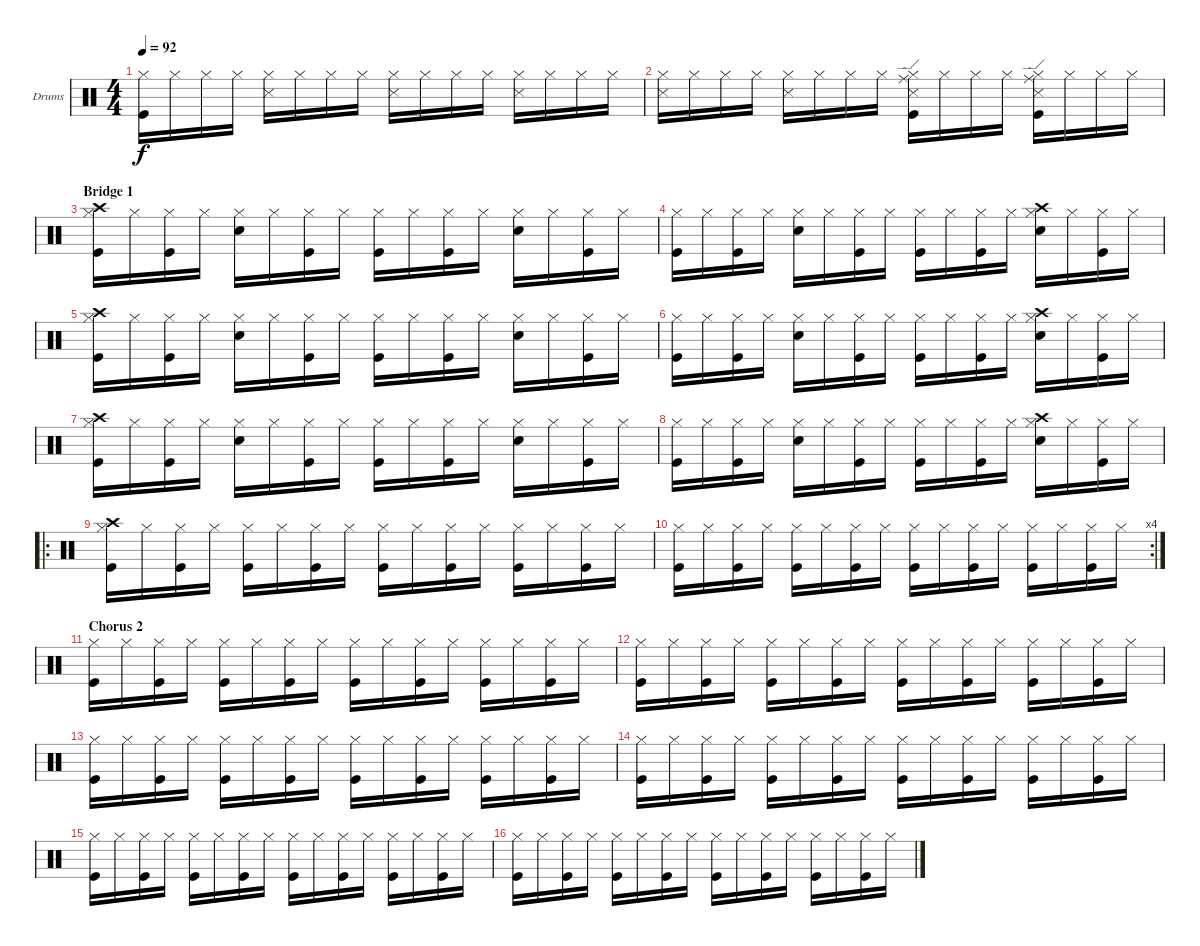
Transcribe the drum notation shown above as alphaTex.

\bracketExtendMode groupsimilarinstruments
\firstSystemTrackNameOrientation horizontal
\otherSystemsTrackNameOrientation horizontal
\track ("Drumkit" "Drums") {instrument percussion}
\staff {score}
\articulation defaults
\ts (4 4)
\tempo 92
\clef neutral
\ks c
("Hi-Hat (closed)" "Kick (hit)").16{dy f} "Hi-Hat (closed)".16 "Hi-Hat (closed)".16 "Hi-Hat (closed)".16 ("Hi-Hat (closed)" "Snare (side stick) 3").16 "Hi-Hat (closed)".16 "Hi-Hat (closed)".16 "Hi-Hat (closed)".16 ("Hi-Hat (closed)" "Snare (side stick) 3").16 "Hi-Hat (closed)".16 "Hi-Hat (closed)".16 "Hi-Hat (closed)".16 ("Hi-Hat (closed)" "Snare (side stick) 3").16 "Hi-Hat (closed)".16 "Hi-Hat (closed)".16 "Hi-Hat (closed)".16 |
("Hi-Hat (closed)" "Snare (side stick) 3").16 "Hi-Hat (closed)".16 "Hi-Hat (closed)".16 "Hi-Hat (closed)".16 ("Hi-Hat (closed)" "Snare (side stick) 3").16 "Hi-Hat (closed)".16 "Hi-Hat (closed)".16 "Hi-Hat (closed)".16 ("Hi-Hat (closed)" "Ride (edge)" "Snare (side stick) 3" "Kick (hit)").16 "Hi-Hat (closed)".16 "Hi-Hat (closed)".16 "Hi-Hat (closed)".16 ("Hi-Hat (closed)" "Ride (edge)" "Snare (side stick) 3" "Kick (hit)").16 "Hi-Hat (closed)".16 "Hi-Hat (closed)".16 "Hi-Hat (closed)".16 |
\section ("" "Bridge 1")
("Hi-Hat (closed)" "Crash high (hit)" "Kick (hit)").16 "Hi-Hat (closed)".16 ("Hi-Hat (closed)" "Kick (hit)").16 "Hi-Hat (closed)".16 ("Hi-Hat (closed)" "Snare (hit) 2").16 "Hi-Hat (closed)".16 ("Hi-Hat (closed)" "Kick (hit)").16 "Hi-Hat (closed)".16 ("Hi-Hat (closed)" "Kick (hit)").16 "Hi-Hat (closed)".16 ("Hi-Hat (closed)" "Kick (hit)").16 "Hi-Hat (closed)".16 ("Hi-Hat (closed)" "Snare (hit) 2").16 "Hi-Hat (closed)".16 ("Hi-Hat (closed)" "Kick (hit)").16 "Hi-Hat (closed)".16 |
("Hi-Hat (closed)" "Kick (hit)").16 "Hi-Hat (closed)".16 ("Hi-Hat (closed)" "Kick (hit)").16 "Hi-Hat (closed)".16 ("Hi-Hat (closed)" "Snare (hit) 2").16 "Hi-Hat (closed)".16 ("Hi-Hat (closed)" "Kick (hit)").16 "Hi-Hat (closed)".16 ("Hi-Hat (closed)" "Kick (hit)").16 "Hi-Hat (closed)".16 ("Hi-Hat (closed)" "Kick (hit)").16 "Hi-Hat (closed)".16 ("Hi-Hat (closed)" "Snare (hit) 2" "Crash high (hit)").16 "Hi-Hat (closed)".16 ("Hi-Hat (closed)" "Kick (hit)").16 "Hi-Hat (closed)".16 |
("Hi-Hat (closed)" "Crash high (hit)" "Kick (hit)").16 "Hi-Hat (closed)".16 ("Hi-Hat (closed)" "Kick (hit)").16 "Hi-Hat (closed)".16 ("Hi-Hat (closed)" "Snare (hit) 2").16 "Hi-Hat (closed)".16 ("Hi-Hat (closed)" "Kick (hit)").16 "Hi-Hat (closed)".16 ("Hi-Hat (closed)" "Kick (hit)").16 "Hi-Hat (closed)".16 ("Hi-Hat (closed)" "Kick (hit)").16 "Hi-Hat (closed)".16 ("Hi-Hat (closed)" "Snare (hit) 2").16 "Hi-Hat (closed)".16 ("Hi-Hat (closed)" "Kick (hit)").16 "Hi-Hat (closed)".16 |
("Hi-Hat (closed)" "Kick (hit)").16 "Hi-Hat (closed)".16 ("Hi-Hat (closed)" "Kick (hit)").16 "Hi-Hat (closed)".16 ("Hi-Hat (closed)" "Snare (hit) 2").16 "Hi-Hat (closed)".16 ("Hi-Hat (closed)" "Kick (hit)").16 "Hi-Hat (closed)".16 ("Hi-Hat (closed)" "Kick (hit)").16 "Hi-Hat (closed)".16 ("Hi-Hat (closed)" "Kick (hit)").16 "Hi-Hat (closed)".16 ("Hi-Hat (closed)" "Snare (hit) 2" "Crash high (hit)").16 "Hi-Hat (closed)".16 ("Hi-Hat (closed)" "Kick (hit)").16 "Hi-Hat (closed)".16 |
("Hi-Hat (closed)" "Crash high (hit)" "Kick (hit)").16 "Hi-Hat (closed)".16 ("Hi-Hat (closed)" "Kick (hit)").16 "Hi-Hat (closed)".16 ("Hi-Hat (closed)" "Snare (hit) 2").16 "Hi-Hat (closed)".16 ("Hi-Hat (closed)" "Kick (hit)").16 "Hi-Hat (closed)".16 ("Hi-Hat (closed)" "Kick (hit)").16 "Hi-Hat (closed)".16 ("Hi-Hat (closed)" "Kick (hit)").16 "Hi-Hat (closed)".16 ("Hi-Hat (closed)" "Snare (hit) 2").16 "Hi-Hat (closed)".16 ("Hi-Hat (closed)" "Kick (hit)").16 "Hi-Hat (closed)".16 |
("Hi-Hat (closed)" "Kick (hit)").16 "Hi-Hat (closed)".16 ("Hi-Hat (closed)" "Kick (hit)").16 "Hi-Hat (closed)".16 ("Hi-Hat (closed)" "Snare (hit) 2").16 "Hi-Hat (closed)".16 ("Hi-Hat (closed)" "Kick (hit)").16 "Hi-Hat (closed)".16 ("Hi-Hat (closed)" "Kick (hit)").16 "Hi-Hat (closed)".16 ("Hi-Hat (closed)" "Kick (hit)").16 "Hi-Hat (closed)".16 ("Hi-Hat (closed)" "Snare (hit) 2" "Crash high (hit)").16 "Hi-Hat (closed)".16 ("Hi-Hat (closed)" "Kick (hit)").16 "Hi-Hat (closed)".16 |
\ro
("Hi-Hat (closed)" "Crash high (hit)" "Kick (hit)").16 "Hi-Hat (closed)".16 ("Hi-Hat (closed)" "Kick (hit)").16 "Hi-Hat (closed)".16 ("Hi-Hat (closed)" "Kick (hit)").16 "Hi-Hat (closed)".16 ("Hi-Hat (closed)" "Kick (hit)").16 "Hi-Hat (closed)".16 ("Hi-Hat (closed)" "Kick (hit)").16 "Hi-Hat (closed)".16 ("Hi-Hat (closed)" "Kick (hit)").16 "Hi-Hat (closed)".16 ("Hi-Hat (closed)" "Kick (hit)").16 "Hi-Hat (closed)".16 ("Hi-Hat (closed)" "Kick (hit)").16 "Hi-Hat (closed)".16 |
\rc 4
("Hi-Hat (closed)" "Kick (hit)").16 "Hi-Hat (closed)".16 ("Hi-Hat (closed)" "Kick (hit)").16 "Hi-Hat (closed)".16 ("Hi-Hat (closed)" "Kick (hit)").16 "Hi-Hat (closed)".16 ("Hi-Hat (closed)" "Kick (hit)").16 "Hi-Hat (closed)".16 ("Hi-Hat (closed)" "Kick (hit)").16 "Hi-Hat (closed)".16 ("Hi-Hat (closed)" "Kick (hit)").16 "Hi-Hat (closed)".16 ("Hi-Hat (closed)" "Kick (hit)").16 "Hi-Hat (closed)".16 ("Hi-Hat (closed)" "Kick (hit)").16 "Hi-Hat (closed)".16 |
\section ("" "Chorus 2")
("Hi-Hat (closed)" "Kick (hit)").16 "Hi-Hat (closed)".16 ("Hi-Hat (closed)" "Kick (hit)").16 "Hi-Hat (closed)".16 ("Hi-Hat (closed)" "Kick (hit)").16 "Hi-Hat (closed)".16 ("Hi-Hat (closed)" "Kick (hit)").16 "Hi-Hat (closed)".16 ("Hi-Hat (closed)" "Kick (hit)").16 "Hi-Hat (closed)".16 ("Hi-Hat (closed)" "Kick (hit)").16 "Hi-Hat (closed)".16 ("Hi-Hat (closed)" "Kick (hit)").16 "Hi-Hat (closed)".16 ("Hi-Hat (closed)" "Kick (hit)").16 "Hi-Hat (closed)".16 |
("Hi-Hat (closed)" "Kick (hit)").16 "Hi-Hat (closed)".16 ("Hi-Hat (closed)" "Kick (hit)").16 "Hi-Hat (closed)".16 ("Hi-Hat (closed)" "Kick (hit)").16 "Hi-Hat (closed)".16 ("Hi-Hat (closed)" "Kick (hit)").16 "Hi-Hat (closed)".16 ("Hi-Hat (closed)" "Kick (hit)").16 "Hi-Hat (closed)".16 ("Hi-Hat (closed)" "Kick (hit)").16 "Hi-Hat (closed)".16 ("Hi-Hat (closed)" "Kick (hit)").16 "Hi-Hat (closed)".16 ("Hi-Hat (closed)" "Kick (hit)").16 "Hi-Hat (closed)".16 |
("Hi-Hat (closed)" "Kick (hit)").16 "Hi-Hat (closed)".16 ("Hi-Hat (closed)" "Kick (hit)").16 "Hi-Hat (closed)".16 ("Hi-Hat (closed)" "Kick (hit)").16 "Hi-Hat (closed)".16 ("Hi-Hat (closed)" "Kick (hit)").16 "Hi-Hat (closed)".16 ("Hi-Hat (closed)" "Kick (hit)").16 "Hi-Hat (closed)".16 ("Hi-Hat (closed)" "Kick (hit)").16 "Hi-Hat (closed)".16 ("Hi-Hat (closed)" "Kick (hit)").16 "Hi-Hat (closed)".16 ("Hi-Hat (closed)" "Kick (hit)").16 "Hi-Hat (closed)".16 |
("Hi-Hat (closed)" "Kick (hit)").16 "Hi-Hat (closed)".16 ("Hi-Hat (closed)" "Kick (hit)").16 "Hi-Hat (closed)".16 ("Hi-Hat (closed)" "Kick (hit)").16 "Hi-Hat (closed)".16 ("Hi-Hat (closed)" "Kick (hit)").16 "Hi-Hat (closed)".16 ("Hi-Hat (closed)" "Kick (hit)").16 "Hi-Hat (closed)".16 ("Hi-Hat (closed)" "Kick (hit)").16 "Hi-Hat (closed)".16 ("Hi-Hat (closed)" "Kick (hit)").16 "Hi-Hat (closed)".16 ("Hi-Hat (closed)" "Kick (hit)").16 "Hi-Hat (closed)".16 |
("Hi-Hat (closed)" "Kick (hit)").16 "Hi-Hat (closed)".16 ("Hi-Hat (closed)" "Kick (hit)").16 "Hi-Hat (closed)".16 ("Hi-Hat (closed)" "Kick (hit)").16 "Hi-Hat (closed)".16 ("Hi-Hat (closed)" "Kick (hit)").16 "Hi-Hat (closed)".16 ("Hi-Hat (closed)" "Kick (hit)").16 "Hi-Hat (closed)".16 ("Hi-Hat (closed)" "Kick (hit)").16 "Hi-Hat (closed)".16 ("Hi-Hat (closed)" "Kick (hit)").16 "Hi-Hat (closed)".16 ("Hi-Hat (closed)" "Kick (hit)").16 "Hi-Hat (closed)".16 |
("Hi-Hat (closed)" "Kick (hit)").16 "Hi-Hat (closed)".16 ("Hi-Hat (closed)" "Kick (hit)").16 "Hi-Hat (closed)".16 ("Hi-Hat (closed)" "Kick (hit)").16 "Hi-Hat (closed)".16 ("Hi-Hat (closed)" "Kick (hit)").16 "Hi-Hat (closed)".16 ("Hi-Hat (closed)" "Kick (hit)").16 "Hi-Hat (closed)".16 ("Hi-Hat (closed)" "Kick (hit)").16 "Hi-Hat (closed)".16 ("Hi-Hat (closed)" "Kick (hit)").16 "Hi-Hat (closed)".16 ("Hi-Hat (closed)" "Kick (hit)").16 "Hi-Hat (closed)".16
